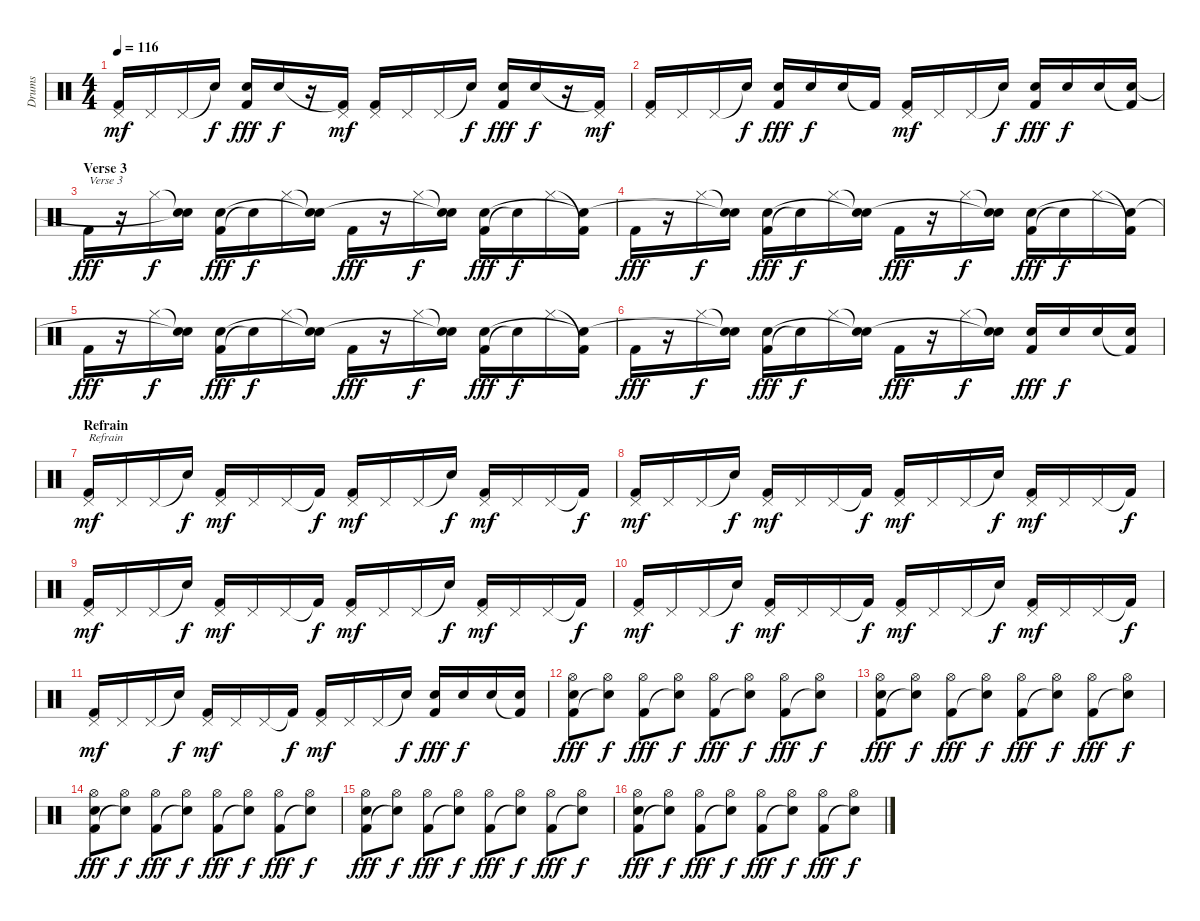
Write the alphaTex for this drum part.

\track ("Drums" "Drums") {instrument percussion}
\staff {score}
\articulation defaults
\ts (4 4)
\tempo 116
\clef neutral
\ks c
("Kick (hit) 2" "Pedal Hi-Hat (hit)").16{dy mf} "Pedal Hi-Hat (hit)".16 "Pedal Hi-Hat (hit)".16 "Snare (hit)"{t}.16{dy f} ("Kick (hit) 2" "Electric Snare (hit)").16{dy fff} "Electric Snare (hit)".16{dy f} r.16 ("Kick (hit) 2"{t} "Pedal Hi-Hat (hit)").16{dy mf} ("Kick (hit) 2" "Pedal Hi-Hat (hit)").16 "Pedal Hi-Hat (hit)".16 "Pedal Hi-Hat (hit)".16 "Snare (hit)"{t}.16{dy f} ("Kick (hit) 2" "Electric Snare (hit)").16{dy fff} "Electric Snare (hit)".16{dy f} r.16 ("Kick (hit) 2"{t} "Pedal Hi-Hat (hit)").16{dy mf} |
("Kick (hit) 2" "Pedal Hi-Hat (hit)").16 "Pedal Hi-Hat (hit)".16 "Pedal Hi-Hat (hit)".16 "Snare (hit)"{t}.16{dy f} ("Kick (hit) 2" "Electric Snare (hit)").16{dy fff} "Electric Snare (hit)".16{dy f} "Electric Snare (hit)".16 "Kick (hit) 2"{t}.16 ("Kick (hit) 2" "Pedal Hi-Hat (hit)").16{dy mf} "Pedal Hi-Hat (hit)".16 "Pedal Hi-Hat (hit)".16 "Snare (hit)"{t}.16{dy f} ("Kick (hit) 2" "Electric Snare (hit)").16{dy fff} "Electric Snare (hit)".16{dy f} "Electric Snare (hit)".16 ("Kick (hit) 2"{t} "Electric Snare (hit)").16 |
\section ("" "Verse 3")
"Kick (hit) 2".16{txt "Verse 3" dy fff} r.16 "Hi-Hat (closed)".16{dy f} ("Snare (hit)"{t} "Snare (hit) 2"{t}).16 ("Kick (hit) 2" "Electric Snare (hit)").16{dy fff} "Snare (hit)"{t}.16{dy f} "Hi-Hat (closed)".16 ("Snare (hit)"{t} "Snare (hit)"{t}).16 "Kick (hit) 2".16{dy fff} r.16 "Hi-Hat (closed)".16{dy f} ("Snare (hit)"{t} "Snare (hit)"{t}).16 ("Kick (hit) 2" "Electric Snare (hit)").16{dy fff} "Snare (hit)"{t}.16{dy f} "Hi-Hat (closed)".16 ("Kick (hit) 2"{t} "Snare (hit) 2"{t}).16 |
"Kick (hit) 2".16{dy fff} r.16 "Hi-Hat (closed)".16{dy f} ("Snare (hit)"{t} "Snare (hit) 2"{t}).16 ("Kick (hit) 2" "Electric Snare (hit)").16{dy fff} "Snare (hit)"{t}.16{dy f} "Hi-Hat (closed)".16 ("Snare (hit)"{t} "Snare (hit)"{t}).16 "Kick (hit) 2".16{dy fff} r.16 "Hi-Hat (closed)".16{dy f} ("Snare (hit)"{t} "Snare (hit)"{t}).16 ("Kick (hit) 2" "Electric Snare (hit)").16{dy fff} "Snare (hit)"{t}.16{dy f} "Hi-Hat (closed)".16 ("Kick (hit) 2"{t} "Snare (hit) 2"{t}).16 |
"Kick (hit) 2".16{dy fff} r.16 "Hi-Hat (closed)".16{dy f} ("Snare (hit)"{t} "Snare (hit) 2"{t}).16 ("Kick (hit) 2" "Electric Snare (hit)").16{dy fff} "Snare (hit)"{t}.16{dy f} "Hi-Hat (closed)".16 ("Snare (hit)"{t} "Snare (hit)"{t}).16 "Kick (hit) 2".16{dy fff} r.16 "Hi-Hat (closed)".16{dy f} ("Snare (hit)"{t} "Snare (hit)"{t}).16 ("Kick (hit) 2" "Electric Snare (hit)").16{dy fff} "Snare (hit)"{t}.16{dy f} "Hi-Hat (closed)".16 ("Kick (hit) 2"{t} "Snare (hit) 2"{t}).16 |
"Kick (hit) 2".16{dy fff} r.16 "Hi-Hat (closed)".16{dy f} ("Snare (hit)"{t} "Snare (hit) 2"{t}).16 ("Kick (hit) 2" "Electric Snare (hit)").16{dy fff} "Snare (hit)"{t}.16{dy f} "Hi-Hat (closed)".16 ("Snare (hit)"{t} "Snare (hit)"{t}).16 "Kick (hit) 2".16{dy fff} r.16 "Hi-Hat (closed)".16{dy f} ("Snare (hit)"{t} "Snare (hit)"{t}).16 ("Kick (hit) 2" "Electric Snare (hit)").16{dy fff} "Electric Snare (hit)".16{dy f} "Electric Snare (hit)".16 ("Kick (hit) 2"{t} "Electric Snare (hit)").16 |
\section ("" "Refrain")
("Kick (hit) 2" "Pedal Hi-Hat (hit)").16{txt "Refrain" dy mf} "Pedal Hi-Hat (hit)".16 "Pedal Hi-Hat (hit)".16 "Snare (hit)"{t}.16{dy f} ("Kick (hit) 2" "Pedal Hi-Hat (hit)").16{dy mf} "Pedal Hi-Hat (hit)".16 "Pedal Hi-Hat (hit)".16 "Kick (hit) 2"{t}.16{dy f} ("Kick (hit) 2" "Pedal Hi-Hat (hit)").16{dy mf} "Pedal Hi-Hat (hit)".16 "Pedal Hi-Hat (hit)".16 "Snare (hit)"{t}.16{dy f} ("Kick (hit) 2" "Pedal Hi-Hat (hit)").16{dy mf} "Pedal Hi-Hat (hit)".16 "Pedal Hi-Hat (hit)".16 "Kick (hit) 2"{t}.16{dy f} |
("Kick (hit) 2" "Pedal Hi-Hat (hit)").16{dy mf} "Pedal Hi-Hat (hit)".16 "Pedal Hi-Hat (hit)".16 "Snare (hit)"{t}.16{dy f} ("Kick (hit) 2" "Pedal Hi-Hat (hit)").16{dy mf} "Pedal Hi-Hat (hit)".16 "Pedal Hi-Hat (hit)".16 "Kick (hit) 2"{t}.16{dy f} ("Kick (hit) 2" "Pedal Hi-Hat (hit)").16{dy mf} "Pedal Hi-Hat (hit)".16 "Pedal Hi-Hat (hit)".16 "Snare (hit)"{t}.16{dy f} ("Kick (hit) 2" "Pedal Hi-Hat (hit)").16{dy mf} "Pedal Hi-Hat (hit)".16 "Pedal Hi-Hat (hit)".16 "Kick (hit) 2"{t}.16{dy f} |
("Kick (hit) 2" "Pedal Hi-Hat (hit)").16{dy mf} "Pedal Hi-Hat (hit)".16 "Pedal Hi-Hat (hit)".16 "Snare (hit)"{t}.16{dy f} ("Kick (hit) 2" "Pedal Hi-Hat (hit)").16{dy mf} "Pedal Hi-Hat (hit)".16 "Pedal Hi-Hat (hit)".16 "Kick (hit) 2"{t}.16{dy f} ("Kick (hit) 2" "Pedal Hi-Hat (hit)").16{dy mf} "Pedal Hi-Hat (hit)".16 "Pedal Hi-Hat (hit)".16 "Snare (hit)"{t}.16{dy f} ("Kick (hit) 2" "Pedal Hi-Hat (hit)").16{dy mf} "Pedal Hi-Hat (hit)".16 "Pedal Hi-Hat (hit)".16 "Kick (hit) 2"{t}.16{dy f} |
("Kick (hit) 2" "Pedal Hi-Hat (hit)").16{dy mf} "Pedal Hi-Hat (hit)".16 "Pedal Hi-Hat (hit)".16 "Snare (hit)"{t}.16{dy f} ("Kick (hit) 2" "Pedal Hi-Hat (hit)").16{dy mf} "Pedal Hi-Hat (hit)".16 "Pedal Hi-Hat (hit)".16 "Kick (hit) 2"{t}.16{dy f} ("Kick (hit) 2" "Pedal Hi-Hat (hit)").16{dy mf} "Pedal Hi-Hat (hit)".16 "Pedal Hi-Hat (hit)".16 "Snare (hit)"{t}.16{dy f} ("Kick (hit) 2" "Pedal Hi-Hat (hit)").16{dy mf} "Pedal Hi-Hat (hit)".16 "Pedal Hi-Hat (hit)".16 "Kick (hit) 2"{t}.16{dy f} |
("Kick (hit) 2" "Pedal Hi-Hat (hit)").16{dy mf} "Pedal Hi-Hat (hit)".16 "Pedal Hi-Hat (hit)".16 "Snare (hit)"{t}.16{dy f} ("Kick (hit) 2" "Pedal Hi-Hat (hit)").16{dy mf} "Pedal Hi-Hat (hit)".16 "Pedal Hi-Hat (hit)".16 "Kick (hit) 2"{t}.16{dy f} ("Kick (hit) 2" "Pedal Hi-Hat (hit)").16{dy mf} "Pedal Hi-Hat (hit)".16 "Pedal Hi-Hat (hit)".16 "Snare (hit)"{t}.16{dy f} ("Kick (hit) 2" "Electric Snare (hit)").16{dy fff} "Electric Snare (hit)".16{dy f} "Electric Snare (hit)".16 ("Kick (hit) 2"{t} "Electric Snare (hit)").16 |
("Kick (hit) 2" "Hi-Hat (open)" "Electric Snare (hit)").8{dy fff} ("Snare (hit)"{t} "Hi-Hat (open)").8{dy f} ("Kick (hit) 2" "Hi-Hat (open)").8{dy fff} ("Snare (hit)"{t} "Hi-Hat (open)").8{dy f} ("Kick (hit) 2" "Hi-Hat (open)").8{dy fff} ("Snare (hit)"{t} "Hi-Hat (open)").8{dy f} ("Kick (hit) 2" "Hi-Hat (open)").8{dy fff} ("Snare (hit)"{t} "Hi-Hat (open)").8{dy f} |
("Kick (hit) 2" "Hi-Hat (open)" "Electric Snare (hit)").8{dy fff} ("Snare (hit)"{t} "Hi-Hat (open)").8{dy f} ("Kick (hit) 2" "Hi-Hat (open)").8{dy fff} ("Snare (hit)"{t} "Hi-Hat (open)").8{dy f} ("Kick (hit) 2" "Hi-Hat (open)").8{dy fff} ("Snare (hit)"{t} "Hi-Hat (open)").8{dy f} ("Kick (hit) 2" "Hi-Hat (open)").8{dy fff} ("Snare (hit)"{t} "Hi-Hat (open)").8{dy f} |
("Kick (hit) 2" "Hi-Hat (open)" "Electric Snare (hit)").8{dy fff} ("Snare (hit)"{t} "Hi-Hat (open)").8{dy f} ("Kick (hit) 2" "Hi-Hat (open)").8{dy fff} ("Snare (hit)"{t} "Hi-Hat (open)").8{dy f} ("Kick (hit) 2" "Hi-Hat (open)").8{dy fff} ("Snare (hit)"{t} "Hi-Hat (open)").8{dy f} ("Kick (hit) 2" "Hi-Hat (open)").8{dy fff} ("Snare (hit)"{t} "Hi-Hat (open)").8{dy f} |
("Kick (hit) 2" "Hi-Hat (open)" "Electric Snare (hit)").8{dy fff} ("Snare (hit)"{t} "Hi-Hat (open)").8{dy f} ("Kick (hit) 2" "Hi-Hat (open)").8{dy fff} ("Snare (hit)"{t} "Hi-Hat (open)").8{dy f} ("Kick (hit) 2" "Hi-Hat (open)").8{dy fff} ("Snare (hit)"{t} "Hi-Hat (open)").8{dy f} ("Kick (hit) 2" "Hi-Hat (open)").8{dy fff} ("Snare (hit)"{t} "Hi-Hat (open)").8{dy f} |
("Kick (hit) 2" "Hi-Hat (open)" "Electric Snare (hit)").8{dy fff} ("Snare (hit)"{t} "Hi-Hat (open)").8{dy f} ("Kick (hit) 2" "Hi-Hat (open)").8{dy fff} ("Snare (hit)"{t} "Hi-Hat (open)").8{dy f} ("Kick (hit) 2" "Hi-Hat (open)").8{dy fff} ("Snare (hit)"{t} "Hi-Hat (open)").8{dy f} ("Kick (hit) 2" "Hi-Hat (open)").8{dy fff} ("Snare (hit)"{t} "Hi-Hat (open)").8{dy f}
